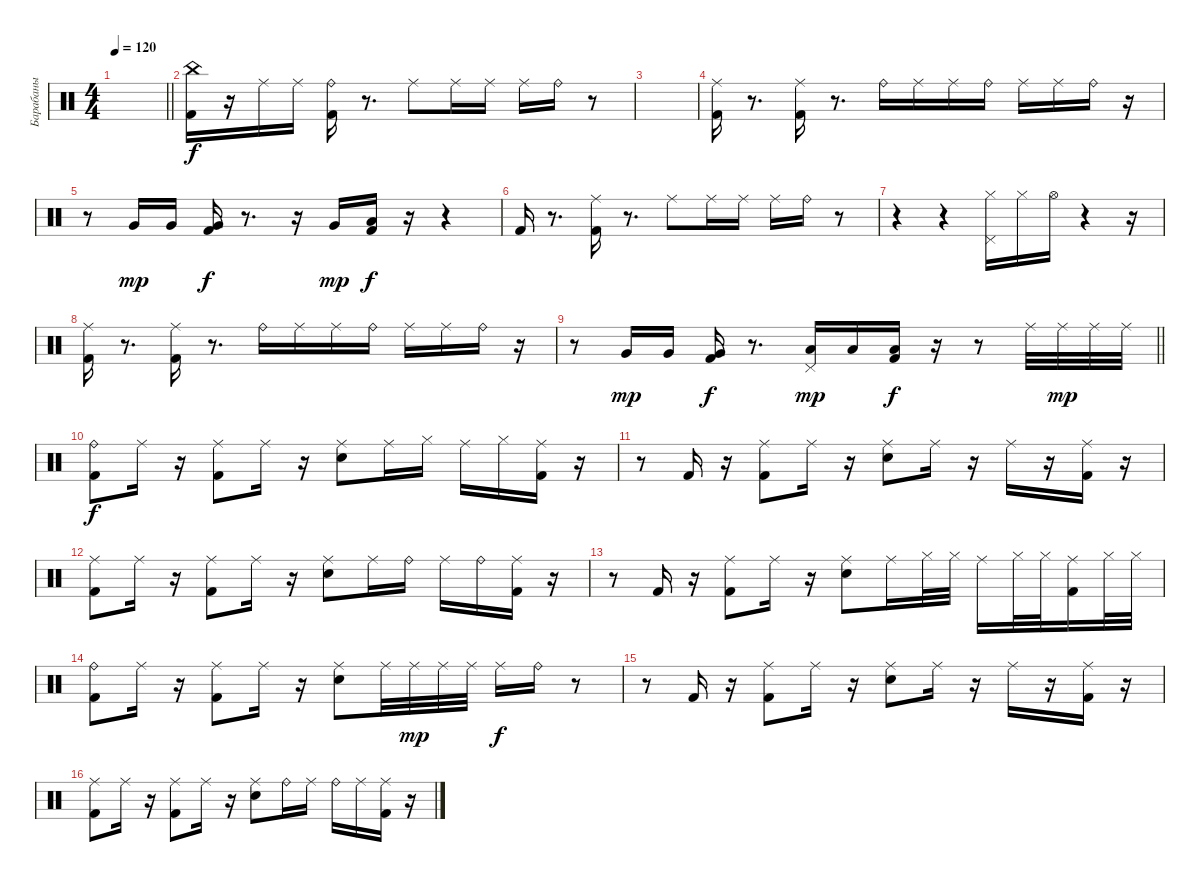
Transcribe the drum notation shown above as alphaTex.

\track ("Барабаны" "Барабаны") {instrument percussion}
\staff {score}
\articulation defaults
\ts (4 4)
\tempo 120
\clef neutral
\barLineRight lightlight
\ks c
|
\section ("" " ")
("Kick (hit) 2" "China (hit)").16{dy f} r.16 "Ride (middle)".16 "Ride (middle)".16 ("Kick (hit) 2" "Ride (bell)").16 r.8{d} "Ride (middle)".8 "Ride (middle)".16 "Ride (middle)".16 "Ride (middle)".16 "Ride (bell)".16 r.8 |
|
("Kick (hit) 2" "Ride (middle)").16 r.8{d} ("Kick (hit) 2" "Ride (middle)").16 r.8{d} "Ride (bell)".16 "Ride (middle)".16 "Ride (middle)".16 "Ride (bell)".16 "Ride (middle)".16 "Ride (middle)".16 "Ride (bell)".16 r.16 |
r.8 "Very Low Tom (hit)".16{dy mp} "Very Low Tom (hit)".16 ("Kick (hit) 2" "Very Low Tom (hit)").16{dy f} r.8{d} r.16 "Very Low Tom (hit)".16{dy mp} ("Kick (hit) 2" "Low Floor Tom (hit)").16{dy f} r.16 r.4 |
"Kick (hit) 2".16 r.8{d} ("Kick (hit) 2" "Ride (middle)").16 r.8{d} "Ride (middle)".8 "Ride (middle)".16 "Ride (middle)".16 "Ride (middle)".16 "Ride (bell)".16 r.8 |
r.4 r.4 ("Hi-Hat (closed)" "Pedal Hi-Hat (hit)").16 "Hi-Hat (closed)".16 "Hi-Hat (open)".16 r.4 r.16 |
("Kick (hit) 2" "Ride (middle)").16 r.8{d} ("Kick (hit) 2" "Ride (middle)").16 r.8{d} "Ride (bell)".16 "Ride (middle)".16 "Ride (middle)".16 "Ride (bell)".16 "Ride (middle)".16 "Ride (middle)".16 "Ride (bell)".16 r.16 |
\barLineRight lightlight
r.8 "Very Low Tom (hit)".16{dy mp} "Very Low Tom (hit)".16 ("Kick (hit) 2" "Very Low Tom (hit)").16{dy f} r.8{d} ("Low Floor Tom (hit)" "Pedal Hi-Hat (hit)").16{dy mp} "Low Floor Tom (hit)".16 ("Kick (hit) 2" "Low Floor Tom (hit)").16{dy f} r.16 r.8 "Ride (middle)".32 "Ride (middle)".32{dy mp} "Ride (middle)".32 "Ride (middle)".32 |
\section ("" " ")
("Kick (hit) 2" "Ride (bell)").8{dy f} "Ride (middle)".16 r.16 ("Kick (hit) 2" "Ride (middle)").8 "Ride (middle)".16 r.16 ("Snare (hit) 2" "Ride (middle)").8 "Ride (middle)".16 "Hi-Hat (closed)".16 "Ride (middle)".16 "Hi-Hat (closed)".16 ("Kick (hit) 2" "Ride (middle)").16 r.16 |
r.8 "Kick (hit) 2".16 r.16 ("Kick (hit) 2" "Ride (middle)").8 "Ride (middle)".16 r.16 ("Snare (hit) 2" "Ride (middle)").8 "Ride (middle)".16 r.16 "Ride (middle)".16 r.16 ("Kick (hit) 2" "Ride (middle)").16 r.16 |
("Kick (hit) 2" "Ride (middle)").8 "Ride (middle)".16 r.16 ("Kick (hit) 2" "Ride (middle)").8 "Ride (middle)".16 r.16 ("Snare (hit) 2" "Ride (middle)").8 "Ride (middle)".16 "Ride (bell)".16 "Ride (middle)".16 "Ride (bell)".16 ("Kick (hit) 2" "Ride (middle)").16 r.16 |
r.8 "Kick (hit) 2".16 r.16 ("Kick (hit) 2" "Ride (middle)").8 "Ride (middle)".16 r.16 ("Snare (hit) 2" "Ride (middle)").8 "Ride (middle)".16 "Hi-Hat (closed)".32 "Hi-Hat (closed)".32 "Ride (middle)".16 "Hi-Hat (closed)".32 "Hi-Hat (closed)".32 ("Kick (hit) 2" "Ride (middle)").16 "Hi-Hat (closed)".32 "Hi-Hat (closed)".32 |
("Kick (hit) 2" "Ride (bell)").8 "Ride (middle)".16 r.16 ("Kick (hit) 2" "Ride (middle)").8 "Ride (middle)".16 r.16 ("Snare (hit) 2" "Ride (middle)").8 "Ride (middle)".32 "Ride (middle)".32{dy mp} "Ride (middle)".32 "Ride (middle)".32 "Ride (middle)".16{dy f} "Ride (bell)".16 r.8 |
r.8 "Kick (hit) 2".16 r.16 ("Kick (hit) 2" "Ride (middle)").8 "Ride (middle)".16 r.16 ("Snare (hit) 2" "Ride (middle)").8 "Ride (middle)".16 r.16 "Ride (middle)".16 r.16 ("Kick (hit) 2" "Ride (middle)").16 r.16 |
("Kick (hit) 2" "Ride (middle)").8 "Ride (middle)".16 r.16 ("Kick (hit) 2" "Ride (middle)").8 "Ride (middle)".16 r.16 ("Snare (hit) 2" "Ride (middle)").8 "Ride (bell)".16 "Ride (middle)".16 "Ride (bell)".16 "Ride (middle)".16 ("Kick (hit) 2" "Ride (middle)").16 r.16
